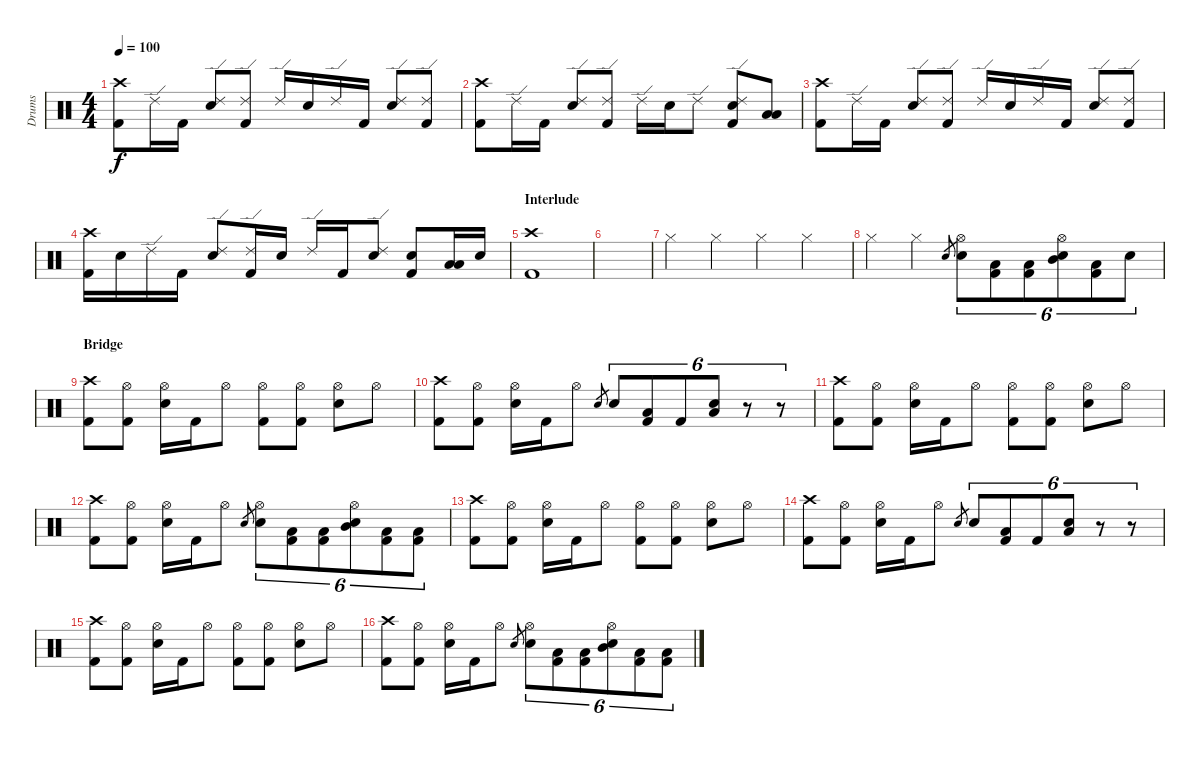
\track ("Drums" "Drums") {instrument percussion}
\staff {score}
\articulation defaults
\ts (4 4)
\tempo 100
\clef neutral
\ks c
("Crash high (hit)" "Kick (hit) 2").8{dy f} "Ride (edge) 2".16 "Kick (hit) 2".16 ("Ride (edge) 2" "Electric Snare (hit)").8 ("Ride (edge) 2" "Kick (hit) 2").8 "Ride (edge) 2".16 "Electric Snare (hit)".16 "Ride (edge) 2".16 "Kick (hit) 2".16 ("Ride (edge) 2" "Electric Snare (hit)").8 ("Ride (edge) 2" "Kick (hit) 2").8 |
("Crash high (hit)" "Kick (hit) 2").8 "Ride (edge) 2".16 "Kick (hit) 2".16 ("Ride (edge) 2" "Electric Snare (hit)").8 ("Ride (edge) 2" "Kick (hit) 2").8 "Ride (edge) 2".16 "Electric Snare (hit)".16 "Ride (edge) 2".8 ("Ride (edge) 2" "Electric Snare (hit)" "Kick (hit) 2").8 ("Low Tom (hit)" "Low Floor Tom (hit)").8 |
("Crash high (hit)" "Kick (hit) 2").8 "Ride (edge) 2".16 "Kick (hit) 2".16 ("Ride (edge) 2" "Electric Snare (hit)").8 ("Ride (edge) 2" "Kick (hit) 2").8 "Ride (edge) 2".16 "Electric Snare (hit)".16 "Ride (edge) 2".16 "Kick (hit) 2".16 ("Ride (edge) 2" "Electric Snare (hit)").8 ("Ride (edge) 2" "Kick (hit) 2").8 |
("Crash high (hit)" "Kick (hit) 2").16 "Electric Snare (hit)".16 "Ride (edge) 2".16 "Kick (hit) 2".16 ("Ride (edge) 2" "Electric Snare (hit)").8 ("Ride (edge) 2" "Kick (hit) 2").16 "Electric Snare (hit)".16 "Ride (edge) 2".16 "Kick (hit) 2".16 ("Ride (edge) 2" "Electric Snare (hit)").8 ("Electric Snare (hit)" "Kick (hit) 2").8 ("Low Tom (hit)" "Low Floor Tom (hit)").16 "Electric Snare (hit)".16 |
\section ("" "Interlude")
("Crash high (hit)" "Kick (hit) 2").1 |
|
"Hi-Hat (closed)".4 "Hi-Hat (closed)".4 "Hi-Hat (closed)".4 "Hi-Hat (closed)".4 |
"Hi-Hat (closed)".4 "Hi-Hat (closed)".4 "Electric Snare (hit)".8{gr} ("Hi-Hat (open)" "Electric Snare (hit)").8{tu (6 4)} ("Low Floor Tom (hit)" "Kick (hit) 2").8{tu (6 4)} ("Low Floor Tom (hit)" "Kick (hit) 2").8{tu (6 4)} ("Hi-Hat (open)" "Electric Snare (hit)" "Mid Tom (hit)").8{tu (6 4)} ("Low Floor Tom (hit)" "Kick (hit) 2").8{tu (6 4)} "Electric Snare (hit)".8{tu (6 4)} |
\section ("" "Bridge")
("Crash high (hit)" "Kick (hit) 2").8 ("Hi-Hat (open)" "Kick (hit) 2").8 ("Hi-Hat (open)" "Electric Snare (hit)").16 "Kick (hit) 2".16 "Hi-Hat (open)".8 ("Hi-Hat (open)" "Kick (hit) 2").8 ("Hi-Hat (open)" "Kick (hit) 2").8 ("Hi-Hat (open)" "Electric Snare (hit)").8 "Hi-Hat (open)".8 |
("Crash high (hit)" "Kick (hit) 2").8 ("Hi-Hat (open)" "Kick (hit) 2").8 ("Hi-Hat (open)" "Electric Snare (hit)").16 "Kick (hit) 2".16 "Hi-Hat (open)".8 "Electric Snare (hit)".8{gr} "Electric Snare (hit)".8{tu (6 4)} ("Low Floor Tom (hit)" "Kick (hit) 2").8{tu (6 4)} "Kick (hit) 2".8{tu (6 4)} ("Electric Snare (hit)" "Low Tom (hit)").8{tu (6 4)} r.8{tu (6 4)} r.8{tu (6 4)} |
("Crash high (hit)" "Kick (hit) 2").8 ("Hi-Hat (open)" "Kick (hit) 2").8 ("Hi-Hat (open)" "Electric Snare (hit)").16 "Kick (hit) 2".16 "Hi-Hat (open)".8 ("Hi-Hat (open)" "Kick (hit) 2").8 ("Hi-Hat (open)" "Kick (hit) 2").8 ("Hi-Hat (open)" "Electric Snare (hit)").8 "Hi-Hat (open)".8 |
("Crash high (hit)" "Kick (hit) 2").8 ("Hi-Hat (open)" "Kick (hit) 2").8 ("Hi-Hat (open)" "Electric Snare (hit)").16 "Kick (hit) 2".16 "Hi-Hat (open)".8 "Electric Snare (hit)".8{gr} ("Hi-Hat (open)" "Electric Snare (hit)").8{tu (6 4)} ("Low Floor Tom (hit)" "Kick (hit) 2").8{tu (6 4)} ("Low Floor Tom (hit)" "Kick (hit) 2").8{tu (6 4)} ("Hi-Hat (open)" "Electric Snare (hit)" "Mid Tom (hit)").8{tu (6 4)} ("Low Floor Tom (hit)" "Kick (hit) 2").8{tu (6 4)} ("Low Floor Tom (hit)" "Kick (hit) 2").8{tu (6 4)} |
("Crash high (hit)" "Kick (hit) 2").8 ("Hi-Hat (open)" "Kick (hit) 2").8 ("Hi-Hat (open)" "Electric Snare (hit)").16 "Kick (hit) 2".16 "Hi-Hat (open)".8 ("Hi-Hat (open)" "Kick (hit) 2").8 ("Hi-Hat (open)" "Kick (hit) 2").8 ("Hi-Hat (open)" "Electric Snare (hit)").8 "Hi-Hat (open)".8 |
("Crash high (hit)" "Kick (hit) 2").8 ("Hi-Hat (open)" "Kick (hit) 2").8 ("Hi-Hat (open)" "Electric Snare (hit)").16 "Kick (hit) 2".16 "Hi-Hat (open)".8 "Electric Snare (hit)".8{gr} "Electric Snare (hit)".8{tu (6 4)} ("Low Floor Tom (hit)" "Kick (hit) 2").8{tu (6 4)} "Kick (hit) 2".8{tu (6 4)} ("Electric Snare (hit)" "Low Tom (hit)").8{tu (6 4)} r.8{tu (6 4)} r.8{tu (6 4)} |
("Crash high (hit)" "Kick (hit) 2").8 ("Hi-Hat (open)" "Kick (hit) 2").8 ("Hi-Hat (open)" "Electric Snare (hit)").16 "Kick (hit) 2".16 "Hi-Hat (open)".8 ("Hi-Hat (open)" "Kick (hit) 2").8 ("Hi-Hat (open)" "Kick (hit) 2").8 ("Hi-Hat (open)" "Electric Snare (hit)").8 "Hi-Hat (open)".8 |
("Crash high (hit)" "Kick (hit) 2").8 ("Hi-Hat (open)" "Kick (hit) 2").8 ("Hi-Hat (open)" "Electric Snare (hit)").16 "Kick (hit) 2".16 "Hi-Hat (open)".8 "Electric Snare (hit)".8{gr} ("Hi-Hat (open)" "Electric Snare (hit)").8{tu (6 4)} ("Low Floor Tom (hit)" "Kick (hit) 2").8{tu (6 4)} ("Low Floor Tom (hit)" "Kick (hit) 2").8{tu (6 4)} ("Hi-Hat (open)" "Electric Snare (hit)" "Mid Tom (hit)").8{tu (6 4)} ("Low Floor Tom (hit)" "Kick (hit) 2").8{tu (6 4)} ("Low Floor Tom (hit)" "Kick (hit) 2").8{tu (6 4)}
